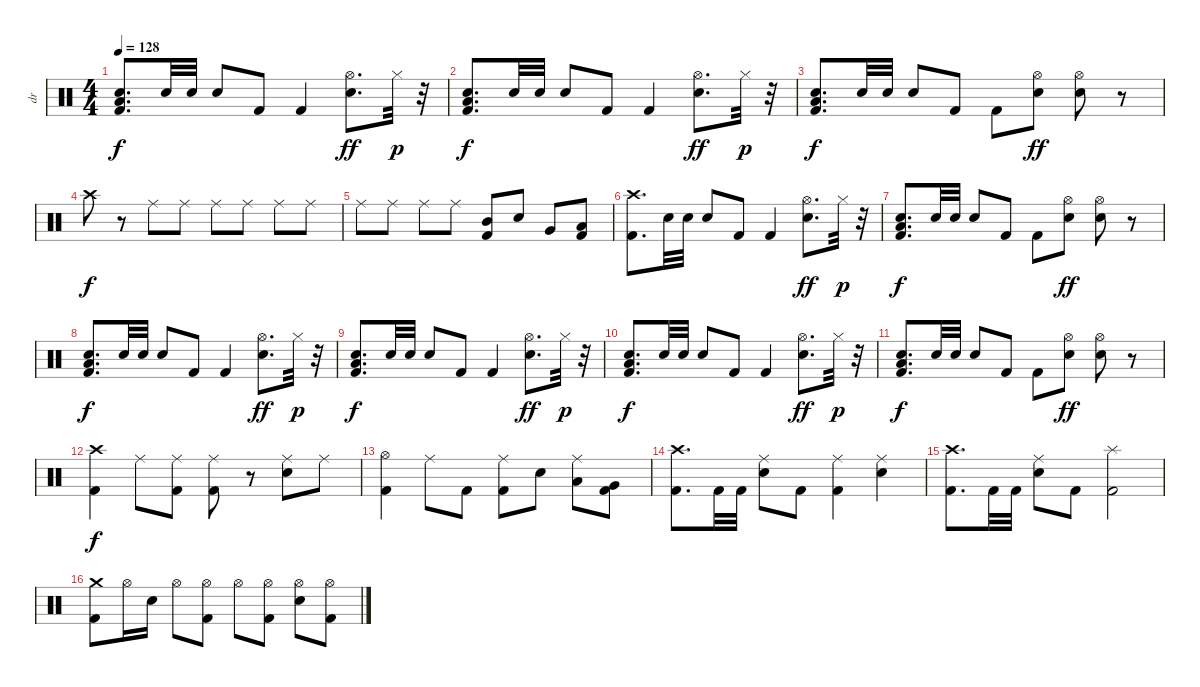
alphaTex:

\track ("dr" "dr") {instrument percussion}
\staff {score}
\articulation defaults
\ts (4 4)
\tempo 128
\clef neutral
\ks c
("Electric Snare (hit)" "Low Floor Tom (hit)" "Kick (hit) 2").8{d dy f} "Electric Snare (hit)".32 "Electric Snare (hit)".32 "Electric Snare (hit)".8 "Kick (hit) 2".8 "Kick (hit) 2".4 ("Hi-Hat (open)" "Electric Snare (hit)").8{d dy ff} "Hi-Hat (closed)".32{dy p} r.32 |
("Electric Snare (hit)" "Low Floor Tom (hit)" "Kick (hit) 2").8{d dy f} "Electric Snare (hit)".32 "Electric Snare (hit)".32 "Electric Snare (hit)".8 "Kick (hit) 2".8 "Kick (hit) 2".4 ("Hi-Hat (open)" "Electric Snare (hit)").8{d dy ff} "Hi-Hat (closed)".32{dy p} r.32 |
("Electric Snare (hit)" "Low Floor Tom (hit)" "Kick (hit) 2").8{d dy f} "Electric Snare (hit)".32 "Electric Snare (hit)".32 "Electric Snare (hit)".8 "Kick (hit) 2".8 "Kick (hit) 2".8 ("Hi-Hat (open)" "Electric Snare (hit)").8{dy ff} ("Hi-Hat (open)" "Electric Snare (hit)").8 r.8 |
"Crash high (hit)".8{dy f} r.8 "Ride (middle)".8 "Ride (middle)".8 "Ride (middle)".8 "Ride (middle)".8 "Ride (middle)".8 "Ride (middle)".8 |
"Ride (middle)".8 "Ride (middle)".8 "Ride (middle)".8 "Ride (middle)".8 ("Mid Tom (hit)" "Kick (hit) 2").8 "Electric Snare (hit)".8 "Very Low Tom (hit)".8 ("Low Floor Tom (hit)" "Kick (hit) 2").8 |
("Crash high (hit)" "Kick (hit) 2").8{d} "Electric Snare (hit)".32 "Electric Snare (hit)".32 "Electric Snare (hit)".8 "Kick (hit) 2".8 "Kick (hit) 2".4 ("Hi-Hat (open)" "Electric Snare (hit)").8{d dy ff} "Hi-Hat (closed)".32{dy p} r.32 |
("Electric Snare (hit)" "Low Floor Tom (hit)" "Kick (hit) 2").8{d dy f} "Electric Snare (hit)".32 "Electric Snare (hit)".32 "Electric Snare (hit)".8 "Kick (hit) 2".8 "Kick (hit) 2".8 ("Hi-Hat (open)" "Electric Snare (hit)").8{dy ff} ("Hi-Hat (open)" "Electric Snare (hit)").8 r.8 |
("Electric Snare (hit)" "Low Floor Tom (hit)" "Kick (hit) 2").8{d dy f} "Electric Snare (hit)".32 "Electric Snare (hit)".32 "Electric Snare (hit)".8 "Kick (hit) 2".8 "Kick (hit) 2".4 ("Hi-Hat (open)" "Electric Snare (hit)").8{d dy ff} "Hi-Hat (closed)".32{dy p} r.32 |
("Electric Snare (hit)" "Low Floor Tom (hit)" "Kick (hit) 2").8{d dy f} "Electric Snare (hit)".32 "Electric Snare (hit)".32 "Electric Snare (hit)".8 "Kick (hit) 2".8 "Kick (hit) 2".4 ("Hi-Hat (open)" "Electric Snare (hit)").8{d dy ff} "Hi-Hat (closed)".32{dy p} r.32 |
("Electric Snare (hit)" "Low Floor Tom (hit)" "Kick (hit) 2").8{d dy f} "Electric Snare (hit)".32 "Electric Snare (hit)".32 "Electric Snare (hit)".8 "Kick (hit) 2".8 "Kick (hit) 2".4 ("Hi-Hat (open)" "Electric Snare (hit)").8{d dy ff} "Hi-Hat (closed)".32{dy p} r.32 |
("Electric Snare (hit)" "Low Floor Tom (hit)" "Kick (hit) 2").8{d dy f} "Electric Snare (hit)".32 "Electric Snare (hit)".32 "Electric Snare (hit)".8 "Kick (hit) 2".8 "Kick (hit) 2".8 ("Hi-Hat (open)" "Electric Snare (hit)").8{dy ff} ("Hi-Hat (open)" "Electric Snare (hit)").8 r.8 |
("Crash high (hit)" "Kick (hit) 2").4{dy f} "Ride (middle)".8 ("Ride (middle)" "Kick (hit) 2").8 ("Ride (middle)" "Kick (hit) 2").8 r.8 ("Ride (middle)" "Electric Snare (hit)").8 "Ride (middle)".8 |
("Hi-Hat (open)" "Kick (hit) 2").4 "Ride (middle)".8 "Kick (hit) 2".8 ("Ride (middle)" "Kick (hit) 2").8 "Electric Snare (hit)".8 ("Ride (middle)" "Low Tom (hit)").8 ("Very Low Tom (hit)" "Kick (hit) 2").8 |
("Crash high (hit)" "Kick (hit) 2").8{d} "Kick (hit) 2".32 "Kick (hit) 2".32 ("Ride (middle)" "Electric Snare (hit)").8 "Kick (hit) 2".8 ("Ride (middle)" "Kick (hit) 2").4 ("Ride (middle)" "Electric Snare (hit)").4 |
("Crash high (hit)" "Kick (hit) 2").8{d} "Kick (hit) 2".32 "Kick (hit) 2".32 ("Ride (middle)" "Electric Snare (hit)").8 "Kick (hit) 2".8 ("Splash (hit)" "Kick (hit) 2").2 |
("Crash medium (hit)" "Kick (hit) 2").8 "Hi-Hat (open)".16 "Electric Snare (hit)".16 "Hi-Hat (open)".8 ("Hi-Hat (open)" "Kick (hit) 2").8 "Hi-Hat (open)".8 ("Hi-Hat (open)" "Kick (hit) 2").8 ("Hi-Hat (open)" "Electric Snare (hit)").8 ("Hi-Hat (open)" "Kick (hit) 2").8
